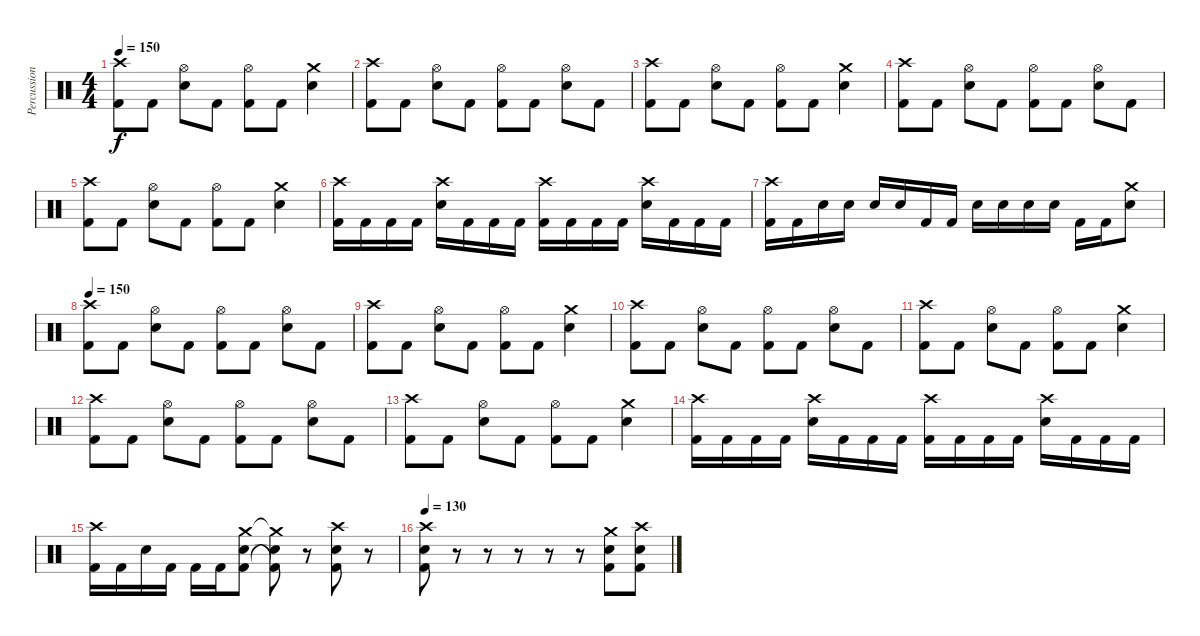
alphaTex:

\track ("Percussion" "Percussion") {instrument percussion}
\staff {score}
\articulation defaults
\ts (4 4)
\tempo 150
\clef neutral
\ks c
("Crash high (hit)" "Kick (hit) 2").8{dy f} "Kick (hit) 2".8 ("Hi-Hat (open)" "Electric Snare (hit)").8 "Kick (hit) 2".8 ("Hi-Hat (open)" "Kick (hit) 2").8 "Kick (hit) 2".8 ("Crash medium (hit)" "Electric Snare (hit)").4 |
("Crash high (hit)" "Kick (hit) 2").8 "Kick (hit) 2".8 ("Hi-Hat (open)" "Electric Snare (hit)").8 "Kick (hit) 2".8 ("Hi-Hat (open)" "Kick (hit) 2").8 "Kick (hit) 2".8 ("Hi-Hat (open)" "Electric Snare (hit)").8 "Kick (hit) 2".8 |
("Crash high (hit)" "Kick (hit) 2").8 "Kick (hit) 2".8 ("Hi-Hat (open)" "Electric Snare (hit)").8 "Kick (hit) 2".8 ("Hi-Hat (open)" "Kick (hit) 2").8 "Kick (hit) 2".8 ("Crash medium (hit)" "Electric Snare (hit)").4 |
("Crash high (hit)" "Kick (hit) 2").8 "Kick (hit) 2".8 ("Hi-Hat (open)" "Electric Snare (hit)").8 "Kick (hit) 2".8 ("Hi-Hat (open)" "Kick (hit) 2").8 "Kick (hit) 2".8 ("Hi-Hat (open)" "Electric Snare (hit)").8 "Kick (hit) 2".8 |
("Crash high (hit)" "Kick (hit) 2").8 "Kick (hit) 2".8 ("Hi-Hat (open)" "Electric Snare (hit)").8 "Kick (hit) 2".8 ("Hi-Hat (open)" "Kick (hit) 2").8 "Kick (hit) 2".8 ("Crash medium (hit)" "Electric Snare (hit)").4 |
("Crash high (hit)" "Kick (hit) 2").16 "Kick (hit) 2".16 "Kick (hit) 2".16 "Kick (hit) 2".16 ("Crash high (hit)" "Electric Snare (hit)").16 "Kick (hit) 2".16 "Kick (hit) 2".16 "Kick (hit) 2".16 ("Crash high (hit)" "Kick (hit) 2").16 "Kick (hit) 2".16 "Kick (hit) 2".16 "Kick (hit) 2".16 ("Crash high (hit)" "Electric Snare (hit)").16 "Kick (hit) 2".16 "Kick (hit) 2".16 "Kick (hit) 2".16 |
("Crash high (hit)" "Kick (hit) 2").16 "Kick (hit) 2".16 "Electric Snare (hit)".16 "Electric Snare (hit)".16 "Electric Snare (hit)".16 "Electric Snare (hit)".16 "Kick (hit) 2".16 "Kick (hit) 2".16 "Electric Snare (hit)".16 "Electric Snare (hit)".16 "Electric Snare (hit)".16 "Electric Snare (hit)".16 "Kick (hit) 2".16 "Kick (hit) 2".16 ("Crash medium (hit)" "Electric Snare (hit)").8 |
\tempo 150
("Crash high (hit)" "Kick (hit) 2").8 "Kick (hit) 2".8 ("Hi-Hat (open)" "Electric Snare (hit)").8 "Kick (hit) 2".8 ("Hi-Hat (open)" "Kick (hit) 2").8 "Kick (hit) 2".8 ("Hi-Hat (open)" "Electric Snare (hit)").8 "Kick (hit) 2".8 |
("Crash high (hit)" "Kick (hit) 2").8 "Kick (hit) 2".8 ("Hi-Hat (open)" "Electric Snare (hit)").8 "Kick (hit) 2".8 ("Hi-Hat (open)" "Kick (hit) 2").8 "Kick (hit) 2".8 ("Crash medium (hit)" "Electric Snare (hit)").4 |
("Crash high (hit)" "Kick (hit) 2").8 "Kick (hit) 2".8 ("Hi-Hat (open)" "Electric Snare (hit)").8 "Kick (hit) 2".8 ("Hi-Hat (open)" "Kick (hit) 2").8 "Kick (hit) 2".8 ("Hi-Hat (open)" "Electric Snare (hit)").8 "Kick (hit) 2".8 |
("Crash high (hit)" "Kick (hit) 2").8 "Kick (hit) 2".8 ("Hi-Hat (open)" "Electric Snare (hit)").8 "Kick (hit) 2".8 ("Hi-Hat (open)" "Kick (hit) 2").8 "Kick (hit) 2".8 ("Crash medium (hit)" "Electric Snare (hit)").4 |
("Crash high (hit)" "Kick (hit) 2").8 "Kick (hit) 2".8 ("Hi-Hat (open)" "Electric Snare (hit)").8 "Kick (hit) 2".8 ("Hi-Hat (open)" "Kick (hit) 2").8 "Kick (hit) 2".8 ("Hi-Hat (open)" "Electric Snare (hit)").8 "Kick (hit) 2".8 |
("Crash high (hit)" "Kick (hit) 2").8 "Kick (hit) 2".8 ("Hi-Hat (open)" "Electric Snare (hit)").8 "Kick (hit) 2".8 ("Hi-Hat (open)" "Kick (hit) 2").8 "Kick (hit) 2".8 ("Crash medium (hit)" "Electric Snare (hit)").4 |
("Crash high (hit)" "Kick (hit) 2").16 "Kick (hit) 2".16 "Kick (hit) 2".16 "Kick (hit) 2".16 ("Crash high (hit)" "Electric Snare (hit)").16 "Kick (hit) 2".16 "Kick (hit) 2".16 "Kick (hit) 2".16 ("Crash high (hit)" "Kick (hit) 2").16 "Kick (hit) 2".16 "Kick (hit) 2".16 "Kick (hit) 2".16 ("Crash high (hit)" "Electric Snare (hit)").16 "Kick (hit) 2".16 "Kick (hit) 2".16 "Kick (hit) 2".16 |
("Crash high (hit)" "Kick (hit) 2").16 "Kick (hit) 2".16 "Electric Snare (hit)".16 "Kick (hit) 2".16 "Kick (hit) 2".16 "Kick (hit) 2".16 ("Crash medium (hit)" "Kick (hit) 2" "Electric Snare (hit)").8 ("Crash medium (hit)"{t} "Electric Snare (hit)"{t} "Kick (hit) 2"{t}).8 r.8 ("Crash high (hit)" "Electric Snare (hit)" "Kick (hit) 2").8 r.8 |
\tempo 130
("Crash high (hit)" "Electric Snare (hit)" "Kick (hit) 2").8 r.8 r.8 r.8 r.8 r.8 ("Crash medium (hit)" "Electric Snare (hit)" "Kick (hit) 2").8 ("Crash high (hit)" "Electric Snare (hit)" "Kick (hit) 2").8
